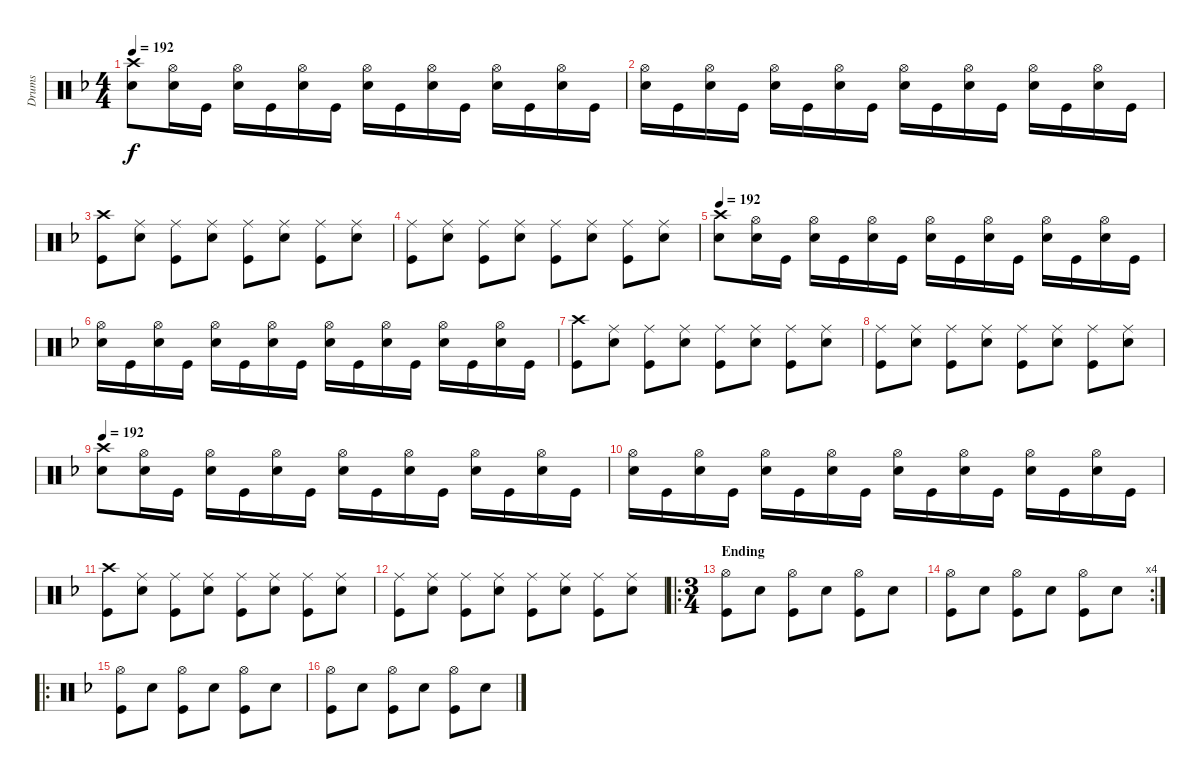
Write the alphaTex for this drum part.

\track ("Drums" "Drums") {instrument percussion}
\staff {score}
\articulation defaults
\ts (4 4)
\tempo 192
\clef neutral
\ks f
("Crash high (hit)" "Electric Snare (hit)").8{dy f volume 13} ("Hi-Hat (open)" "Electric Snare (hit)").16 "Kick (hit)".16 ("Hi-Hat (open)" "Electric Snare (hit)").16 "Kick (hit)".16 ("Hi-Hat (open)" "Electric Snare (hit)").16 "Kick (hit)".16 ("Hi-Hat (open)" "Electric Snare (hit)").16 "Kick (hit)".16 ("Hi-Hat (open)" "Electric Snare (hit)").16 "Kick (hit)".16 ("Hi-Hat (open)" "Electric Snare (hit)").16 "Kick (hit)".16 ("Hi-Hat (open)" "Electric Snare (hit)").16 "Kick (hit)".16 |
("Hi-Hat (open)" "Electric Snare (hit)").16 "Kick (hit)".16 ("Hi-Hat (open)" "Electric Snare (hit)").16 "Kick (hit)".16 ("Hi-Hat (open)" "Electric Snare (hit)").16 "Kick (hit)".16 ("Hi-Hat (open)" "Electric Snare (hit)").16 "Kick (hit)".16 ("Hi-Hat (open)" "Electric Snare (hit)").16 "Kick (hit)".16 ("Hi-Hat (open)" "Electric Snare (hit)").16 "Kick (hit)".16 ("Hi-Hat (open)" "Electric Snare (hit)").16 "Kick (hit)".16 ("Hi-Hat (open)" "Electric Snare (hit)").16 "Kick (hit)".16 |
("Crash high (hit)" "Kick (hit)").8 ("Ride (middle)" "Electric Snare (hit)").8 ("Ride (middle)" "Kick (hit)").8 ("Ride (middle)" "Electric Snare (hit)").8 ("Ride (middle)" "Kick (hit)").8 ("Ride (middle)" "Electric Snare (hit)").8 ("Ride (middle)" "Kick (hit)").8 ("Ride (middle)" "Electric Snare (hit)").8 |
("Ride (middle)" "Kick (hit)").8 ("Ride (middle)" "Electric Snare (hit)").8 ("Ride (middle)" "Kick (hit)").8 ("Ride (middle)" "Electric Snare (hit)").8 ("Ride (middle)" "Kick (hit)").8 ("Ride (middle)" "Electric Snare (hit)").8 ("Ride (middle)" "Kick (hit)").8 ("Ride (middle)" "Electric Snare (hit)").8 |
\tempo 192
("Crash high (hit)" "Electric Snare (hit)").8{volume 13} ("Hi-Hat (open)" "Electric Snare (hit)").16 "Kick (hit)".16 ("Hi-Hat (open)" "Electric Snare (hit)").16 "Kick (hit)".16 ("Hi-Hat (open)" "Electric Snare (hit)").16 "Kick (hit)".16 ("Hi-Hat (open)" "Electric Snare (hit)").16 "Kick (hit)".16 ("Hi-Hat (open)" "Electric Snare (hit)").16 "Kick (hit)".16 ("Hi-Hat (open)" "Electric Snare (hit)").16 "Kick (hit)".16 ("Hi-Hat (open)" "Electric Snare (hit)").16 "Kick (hit)".16 |
("Hi-Hat (open)" "Electric Snare (hit)").16 "Kick (hit)".16 ("Hi-Hat (open)" "Electric Snare (hit)").16 "Kick (hit)".16 ("Hi-Hat (open)" "Electric Snare (hit)").16 "Kick (hit)".16 ("Hi-Hat (open)" "Electric Snare (hit)").16 "Kick (hit)".16 ("Hi-Hat (open)" "Electric Snare (hit)").16 "Kick (hit)".16 ("Hi-Hat (open)" "Electric Snare (hit)").16 "Kick (hit)".16 ("Hi-Hat (open)" "Electric Snare (hit)").16 "Kick (hit)".16 ("Hi-Hat (open)" "Electric Snare (hit)").16 "Kick (hit)".16 |
("Crash high (hit)" "Kick (hit)").8 ("Ride (middle)" "Electric Snare (hit)").8 ("Ride (middle)" "Kick (hit)").8 ("Ride (middle)" "Electric Snare (hit)").8 ("Ride (middle)" "Kick (hit)").8 ("Ride (middle)" "Electric Snare (hit)").8 ("Ride (middle)" "Kick (hit)").8 ("Ride (middle)" "Electric Snare (hit)").8 |
("Ride (middle)" "Kick (hit)").8 ("Ride (middle)" "Electric Snare (hit)").8 ("Ride (middle)" "Kick (hit)").8 ("Ride (middle)" "Electric Snare (hit)").8 ("Ride (middle)" "Kick (hit)").8 ("Ride (middle)" "Electric Snare (hit)").8 ("Ride (middle)" "Kick (hit)").8 ("Ride (middle)" "Electric Snare (hit)").8 |
\tempo 192
("Crash high (hit)" "Electric Snare (hit)").8{volume 13} ("Hi-Hat (open)" "Electric Snare (hit)").16 "Kick (hit)".16 ("Hi-Hat (open)" "Electric Snare (hit)").16 "Kick (hit)".16 ("Hi-Hat (open)" "Electric Snare (hit)").16 "Kick (hit)".16 ("Hi-Hat (open)" "Electric Snare (hit)").16 "Kick (hit)".16 ("Hi-Hat (open)" "Electric Snare (hit)").16 "Kick (hit)".16 ("Hi-Hat (open)" "Electric Snare (hit)").16 "Kick (hit)".16 ("Hi-Hat (open)" "Electric Snare (hit)").16 "Kick (hit)".16 |
("Hi-Hat (open)" "Electric Snare (hit)").16 "Kick (hit)".16 ("Hi-Hat (open)" "Electric Snare (hit)").16 "Kick (hit)".16 ("Hi-Hat (open)" "Electric Snare (hit)").16 "Kick (hit)".16 ("Hi-Hat (open)" "Electric Snare (hit)").16 "Kick (hit)".16 ("Hi-Hat (open)" "Electric Snare (hit)").16 "Kick (hit)".16 ("Hi-Hat (open)" "Electric Snare (hit)").16 "Kick (hit)".16 ("Hi-Hat (open)" "Electric Snare (hit)").16 "Kick (hit)".16 ("Hi-Hat (open)" "Electric Snare (hit)").16 "Kick (hit)".16 |
("Crash high (hit)" "Kick (hit)").8 ("Ride (middle)" "Electric Snare (hit)").8 ("Ride (middle)" "Kick (hit)").8 ("Ride (middle)" "Electric Snare (hit)").8 ("Ride (middle)" "Kick (hit)").8 ("Ride (middle)" "Electric Snare (hit)").8 ("Ride (middle)" "Kick (hit)").8 ("Ride (middle)" "Electric Snare (hit)").8 |
("Ride (middle)" "Kick (hit)").8 ("Ride (middle)" "Electric Snare (hit)").8 ("Ride (middle)" "Kick (hit)").8 ("Ride (middle)" "Electric Snare (hit)").8 ("Ride (middle)" "Kick (hit)").8 ("Ride (middle)" "Electric Snare (hit)").8 ("Ride (middle)" "Kick (hit)").8 ("Ride (middle)" "Electric Snare (hit)").8 |
\ro
\ts (3 4)
\section ("" "Ending")
("Hi-Hat (open)" "Kick (hit)").8 "Electric Snare (hit)".8 ("Hi-Hat (open)" "Kick (hit)").8 "Electric Snare (hit)".8 ("Hi-Hat (open)" "Kick (hit)").8 "Electric Snare (hit)".8 |
\rc 4
("Hi-Hat (open)" "Kick (hit)").8 "Electric Snare (hit)".8 ("Hi-Hat (open)" "Kick (hit)").8 "Electric Snare (hit)".8 ("Hi-Hat (open)" "Kick (hit)").8 "Electric Snare (hit)".8 |
\ro
("Hi-Hat (open)" "Kick (hit)").8 "Electric Snare (hit)".8 ("Hi-Hat (open)" "Kick (hit)").8 "Electric Snare (hit)".8 ("Hi-Hat (open)" "Kick (hit)").8 "Electric Snare (hit)".8 |
("Hi-Hat (open)" "Kick (hit)").8 "Electric Snare (hit)".8 ("Hi-Hat (open)" "Kick (hit)").8 "Electric Snare (hit)".8 ("Hi-Hat (open)" "Kick (hit)").8 "Electric Snare (hit)".8
